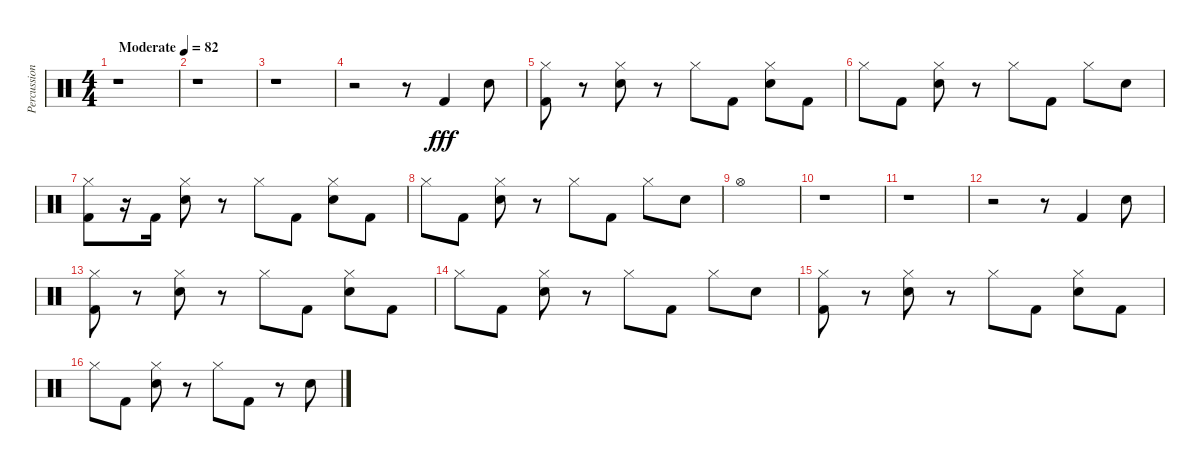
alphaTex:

\track ("Percussion" "Percussion") {instrument percussion}
\staff {score}
\articulation defaults
\ts (4 4)
\tempo (82 "Moderate")
\clef neutral
\ks c
r.1{dy fff} |
r.1 |
r.1 |
r.2 r.8 "Kick (hit) 2".4 "Electric Snare (hit)".8 |
("Hi-Hat (closed)" "Kick (hit) 2").8 r.8 ("Hi-Hat (closed)" "Electric Snare (hit)").8 r.8 "Hi-Hat (closed)".8 "Kick (hit) 2".8 ("Hi-Hat (closed)" "Electric Snare (hit)").8 "Kick (hit) 2".8 |
"Hi-Hat (closed)".8 "Kick (hit) 2".8 ("Hi-Hat (closed)" "Electric Snare (hit)").8 r.8 "Hi-Hat (closed)".8 "Kick (hit) 2".8 "Hi-Hat (closed)".8 "Electric Snare (hit)".8 |
("Hi-Hat (closed)" "Kick (hit) 2").8 r.16 "Kick (hit) 2".16 ("Hi-Hat (closed)" "Electric Snare (hit)").8 r.8 "Hi-Hat (closed)".8 "Kick (hit) 2".8 ("Hi-Hat (closed)" "Electric Snare (hit)").8 "Kick (hit) 2".8 |
"Hi-Hat (closed)".8 "Kick (hit) 2".8 ("Hi-Hat (closed)" "Electric Snare (hit)").8 r.8 "Hi-Hat (closed)".8 "Kick (hit) 2".8 "Hi-Hat (closed)".8 "Electric Snare (hit)".8 |
"Hi-Hat (open)".1 |
r.1 |
r.1 |
r.2 r.8 "Kick (hit) 2".4 "Electric Snare (hit)".8 |
("Hi-Hat (closed)" "Kick (hit) 2").8 r.8 ("Hi-Hat (closed)" "Electric Snare (hit)").8 r.8 "Hi-Hat (closed)".8 "Kick (hit) 2".8 ("Hi-Hat (closed)" "Electric Snare (hit)").8 "Kick (hit) 2".8 |
"Hi-Hat (closed)".8 "Kick (hit) 2".8 ("Hi-Hat (closed)" "Electric Snare (hit)").8 r.8 "Hi-Hat (closed)".8 "Kick (hit) 2".8 "Hi-Hat (closed)".8 "Electric Snare (hit)".8 |
("Hi-Hat (closed)" "Kick (hit) 2").8 r.8 ("Hi-Hat (closed)" "Electric Snare (hit)").8 r.8 "Hi-Hat (closed)".8 "Kick (hit) 2".8 ("Hi-Hat (closed)" "Electric Snare (hit)").8 "Kick (hit) 2".8 |
"Hi-Hat (closed)".8 "Kick (hit) 2".8 ("Hi-Hat (closed)" "Electric Snare (hit)").8 r.8 "Hi-Hat (closed)".8 "Kick (hit) 2".8 r.8 "Electric Snare (hit)".8
